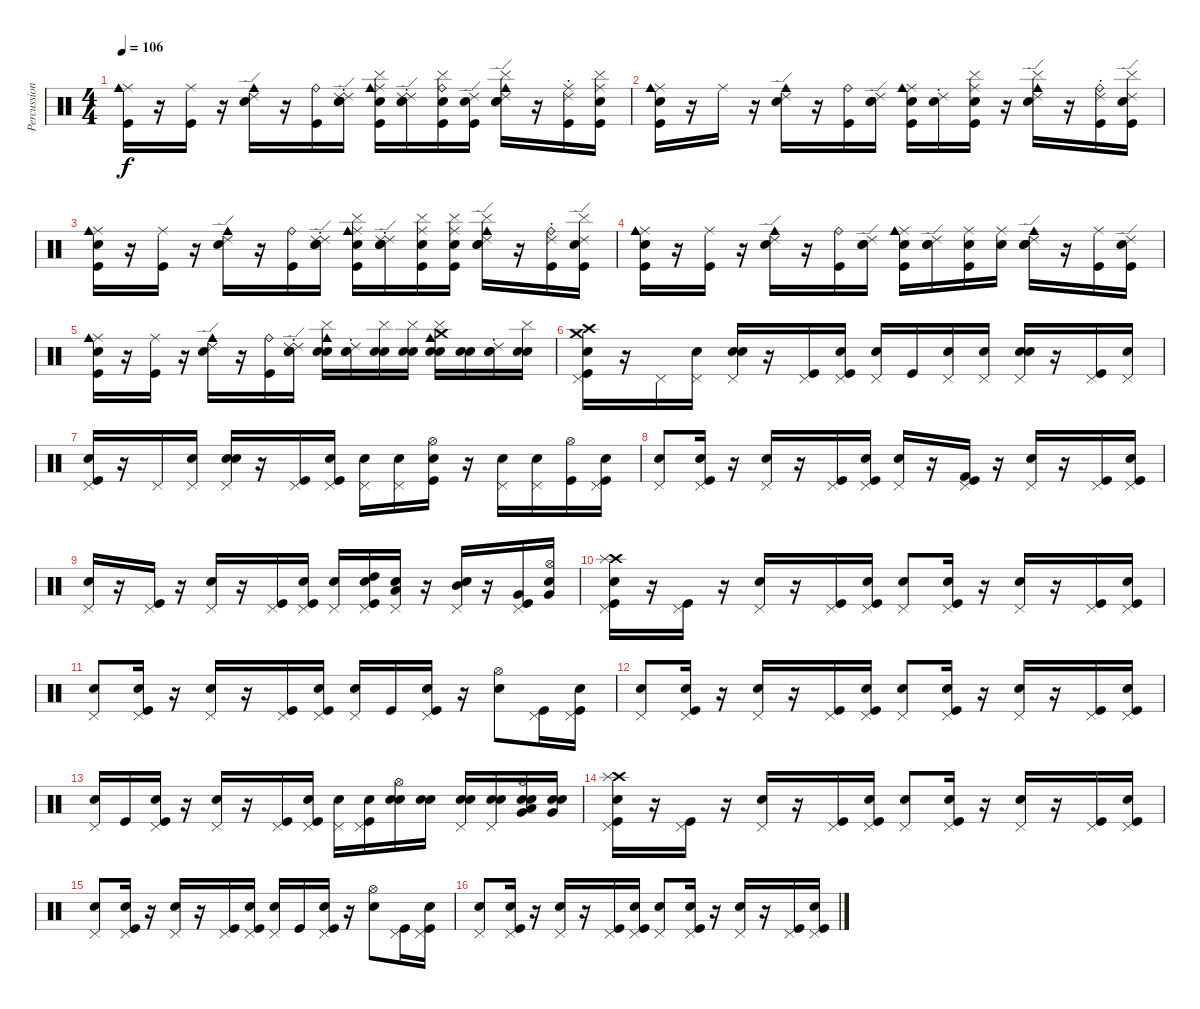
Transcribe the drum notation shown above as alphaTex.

\track ("Percussions (Zaac)" "Percussion") {instrument percussion}
\staff {score}
\articulation defaults
\ts (4 4)
\tempo 106
\clef neutral
\ks c
("Kick (hit)" "Ride (middle)" "Cowbell medium (hit)").16{dy f} r.16 ("Kick (hit)" "Ride (middle)").16 r.16 ("Electric Snare (hit)" "Cowbell medium (hit)" "Ride (edge) 2").16 r.16 ("Kick (hit)" "Ride (bell)").16 ("Snare (hit)" "Ride (choke) 2" "Electric Snare (hit)" "Ride (edge) 2").16 ("Snare (hit)" "Cymbal (hit)" "Kick (hit)" "Ride (middle)" "Cowbell medium (hit)").16 ("Snare (hit)" "Ride (choke) 2" "Electric Snare (hit)" "Ride (edge) 2").16 ("Snare (hit)" "Cymbal (hit)" "Kick (hit)" "Ride (bell)").16 ("Snare (hit)" "Kick (hit)" "Ride (edge) 2").16 ("Snare (hit)" "Cymbal (hit)" "Electric Snare (hit)" "Cowbell medium (hit)" "Ride (edge) 2").16 r.16 ("Ride (choke) 2" "Kick (hit)" "Ride (middle)").16 ("Snare (hit)" "Cymbal (hit)" "Kick (hit)" "Ride (middle)").16 |
("Snare (hit)" "Kick (hit)" "Ride (middle)" "Cowbell medium (hit)").16 r.16 "Ride (middle)".16 r.16 ("Electric Snare (hit)" "Cowbell medium (hit)" "Ride (edge) 2").16 r.16 ("Kick (hit)" "Ride (bell)").16 ("Snare (hit)" "Electric Snare (hit)" "Ride (edge) 2").16 ("Snare (hit)" "Kick (hit)" "Ride (middle)" "Cowbell medium (hit)").16 ("Snare (hit)" "Ride (choke) 2").16 ("Snare (hit)" "Cymbal (hit)" "Kick (hit)" "Ride (middle)").16 r.16 ("Cymbal (hit)" "Electric Snare (hit)" "Cowbell medium (hit)" "Ride (edge) 2").16 r.16 ("Ride (choke) 2" "Kick (hit)" "Ride (bell)").16 ("Snare (hit)" "Cymbal (hit)" "Kick (hit)" "Ride (edge) 2").16 |
("Snare (hit)" "Kick (hit)" "Ride (middle)" "Cowbell medium (hit)").16 r.16 ("Kick (hit)" "Ride (middle)").16 r.16 ("Electric Snare (hit)" "Cowbell medium (hit)" "Ride (edge) 2").16 r.16 ("Kick (hit)" "Ride (bell)").16 ("Snare (hit)" "Ride (choke) 2" "Electric Snare (hit)" "Ride (edge) 2").16 ("Snare (hit)" "Cymbal (hit)" "Kick (hit)" "Ride (middle)" "Cowbell medium (hit)").16 ("Snare (hit)" "Ride (choke) 2" "Electric Snare (hit)" "Ride (edge) 2").16 ("Snare (hit)" "Cymbal (hit)" "Kick (hit)" "Ride (middle)").16 ("Snare (hit)" "Cymbal (hit)" "Kick (hit)" "Ride (middle)").16 ("Snare (hit)" "Cymbal (hit)" "Electric Snare (hit)" "Cowbell medium (hit)" "Ride (edge) 2").16 r.16 ("Ride (choke) 2" "Kick (hit)" "Ride (bell)").16 ("Snare (hit)" "Cymbal (hit)" "Kick (hit)" "Ride (edge) 2").16 |
("Snare (hit)" "Kick (hit)" "Ride (middle)" "Cowbell medium (hit)").16 r.16 ("Kick (hit)" "Ride (middle)").16 r.16 ("Electric Snare (hit)" "Cowbell medium (hit)" "Ride (edge) 2").16 r.16 ("Kick (hit)" "Ride (bell)").16 ("Snare (hit)" "Electric Snare (hit)" "Ride (edge) 2").16 ("Snare (hit)" "Kick (hit)" "Ride (middle)" "Cowbell medium (hit)").16 ("Snare (hit)" "Electric Snare (hit)" "Ride (edge) 2").16 ("Snare (hit)" "Kick (hit)" "Ride (middle)").16 ("Snare (hit)" "Ride (middle)").16 ("Snare (hit)" "Electric Snare (hit)" "Cowbell medium (hit)" "Ride (edge) 2").16 r.16 ("Kick (hit)" "Ride (middle)").16 ("Snare (hit)" "Kick (hit)" "Ride (edge) 2").16 |
("Snare (hit)" "Kick (hit)" "Ride (middle)" "Cowbell medium (hit)").16 r.16 ("Kick (hit)" "Ride (middle)").16 r.16 ("Electric Snare (hit)" "Cowbell medium (hit)" "Ride (edge) 2").16 r.16 ("Kick (hit)" "Ride (bell)").16 ("Snare (hit)" "Ride (choke) 2" "Electric Snare (hit)" "Ride (edge) 2").16 ("Snare (hit)" "Cymbal (hit)" "Electric Snare (hit)" "Cowbell medium (hit)").16 ("Snare (hit)" "Ride (choke) 2" "Electric Snare (hit)").16 ("Snare (hit)" "Cymbal (hit)" "Electric Snare (hit)").16 ("Snare (hit)" "Cymbal (hit)" "Electric Snare (hit)").16 ("Snare (hit)" "Cymbal (hit)" "Electric Snare (hit)" "Cowbell medium (hit)" "Crash medium (hit)").16 ("Snare (hit)" "Electric Snare (hit)").16 ("Snare (hit)" "Ride (choke) 2" "Electric Snare (hit)").16 ("Snare (hit)" "Cymbal (hit)" "Electric Snare (hit)").16 |
("Snare (hit)" "Kick (hit)" "Pedal Hi-Hat (hit)" "Crash high (hit)" "Crash medium (hit)").16 r.16 "Pedal Hi-Hat (hit)".16 ("Snare (hit)" "Pedal Hi-Hat (hit)").16 ("Snare (hit)" "Electric Snare (hit)" "Pedal Hi-Hat (hit)").16 r.16 ("Kick (hit)" "Pedal Hi-Hat (hit)").16 ("Snare (hit)" "Kick (hit)" "Pedal Hi-Hat (hit)").16 ("Snare (hit)" "Pedal Hi-Hat (hit)").16 "Kick (hit)".16 ("Snare (hit)" "Pedal Hi-Hat (hit)").16 ("Snare (hit)" "Pedal Hi-Hat (hit)").16 ("Snare (hit)" "Electric Snare (hit)" "Pedal Hi-Hat (hit)").16 r.16 ("Kick (hit)" "Pedal Hi-Hat (hit)").16 ("Snare (hit)" "Pedal Hi-Hat (hit)").16 |
("Snare (hit)" "Kick (hit)" "Pedal Hi-Hat (hit)").16 r.16 "Pedal Hi-Hat (hit)".16 ("Snare (hit)" "Pedal Hi-Hat (hit)").16 ("Snare (hit)" "Electric Snare (hit)" "Pedal Hi-Hat (hit)").16 r.16 ("Kick (hit)" "Pedal Hi-Hat (hit)").16 ("Snare (hit)" "Kick (hit)" "Pedal Hi-Hat (hit)").16 ("Snare (hit)" "Pedal Hi-Hat (hit)").16 ("Snare (hit)" "Pedal Hi-Hat (hit)").16 ("Snare (hit)" "Kick (hit)" "Hi-Hat (open)").16 r.16 ("Electric Snare (hit)" "Pedal Hi-Hat (hit)").16 ("Snare (hit)" "Pedal Hi-Hat (hit)").16 ("Kick (hit)" "Hi-Hat (open)").16 ("Snare (hit)" "Kick (hit)" "Pedal Hi-Hat (hit)").16 |
("Snare (hit)" "Pedal Hi-Hat (hit)").8 ("Snare (hit)" "Kick (hit)" "Pedal Hi-Hat (hit)").16 r.16 ("Electric Snare (hit)" "Pedal Hi-Hat (hit)").16 r.16 ("Kick (hit)" "Pedal Hi-Hat (hit)").16 ("Snare (hit)" "Kick (hit)" "Pedal Hi-Hat (hit)").16 ("Snare (hit)" "Pedal Hi-Hat (hit)").16 r.16 ("Kick (hit)" "Kick (hit) 2" "Pedal Hi-Hat (hit)").16 r.16 ("Electric Snare (hit)" "Pedal Hi-Hat (hit)").16 r.16 ("Kick (hit)" "Pedal Hi-Hat (hit)").16 ("Snare (hit)" "Kick (hit)" "Pedal Hi-Hat (hit)").16 |
("Snare (hit)" "Pedal Hi-Hat (hit)").16 r.16 ("Kick (hit)" "Pedal Hi-Hat (hit)").16 r.16 ("Electric Snare (hit)" "Pedal Hi-Hat (hit)").16 r.16 ("Kick (hit)" "Pedal Hi-Hat (hit)").16 ("Snare (hit)" "Kick (hit)" "Pedal Hi-Hat (hit)").16 ("Snare (hit)" "Pedal Hi-Hat (hit)").16 ("Snare (hit)" "Kick (hit)" "Pedal Hi-Hat (hit)" "High Tom (hit)").16 ("Snare (hit)" "Pedal Hi-Hat (hit)" "Low Tom (hit)").16 r.16 ("Electric Snare (hit)" "Pedal Hi-Hat (hit)" "Mid Tom (hit)").16 r.16 ("Kick (hit)" "Very Low Tom (hit)" "Pedal Hi-Hat (hit)").16 ("Snare (hit)" "Very Low Tom (hit)" "Hi-Hat (open)").16 |
("Snare (hit)" "Kick (hit)" "Pedal Hi-Hat (hit)" "Crash high (hit)" "Splash (hit)").16 r.16 ("Kick (hit)" "Pedal Hi-Hat (hit)").16 r.16 ("Electric Snare (hit)" "Pedal Hi-Hat (hit)").16 r.16 ("Kick (hit)" "Pedal Hi-Hat (hit)").16 ("Snare (hit)" "Kick (hit)" "Pedal Hi-Hat (hit)").16 ("Snare (hit)" "Pedal Hi-Hat (hit)").8 ("Snare (hit)" "Kick (hit)" "Pedal Hi-Hat (hit)").16 r.16 ("Electric Snare (hit)" "Pedal Hi-Hat (hit)").16 r.16 ("Kick (hit)" "Pedal Hi-Hat (hit)").16 ("Snare (hit)" "Kick (hit)" "Pedal Hi-Hat (hit)").16 |
("Snare (hit)" "Pedal Hi-Hat (hit)").8 ("Snare (hit)" "Kick (hit)" "Pedal Hi-Hat (hit)").16 r.16 ("Electric Snare (hit)" "Pedal Hi-Hat (hit)").16 r.16 ("Kick (hit)" "Pedal Hi-Hat (hit)").16 ("Snare (hit)" "Kick (hit)" "Pedal Hi-Hat (hit)").16 ("Snare (hit)" "Pedal Hi-Hat (hit)").16 "Kick (hit)".16 ("Snare (hit)" "Kick (hit)" "Pedal Hi-Hat (hit)").16 r.16 ("Electric Snare (hit)" "Hi-Hat (open)").8 ("Kick (hit)" "Pedal Hi-Hat (hit)").16 ("Snare (hit)" "Kick (hit)" "Pedal Hi-Hat (hit)").16 |
("Snare (hit)" "Pedal Hi-Hat (hit)").8 ("Snare (hit)" "Kick (hit)" "Pedal Hi-Hat (hit)").16 r.16 ("Electric Snare (hit)" "Pedal Hi-Hat (hit)").16 r.16 ("Kick (hit)" "Pedal Hi-Hat (hit)").16 ("Snare (hit)" "Kick (hit)" "Pedal Hi-Hat (hit)").16 ("Snare (hit)" "Pedal Hi-Hat (hit)").8 ("Snare (hit)" "Kick (hit)" "Pedal Hi-Hat (hit)").16 r.16 ("Electric Snare (hit)" "Pedal Hi-Hat (hit)").16 r.16 ("Kick (hit)" "Pedal Hi-Hat (hit)").16 ("Snare (hit)" "Kick (hit)" "Pedal Hi-Hat (hit)").16 |
("Snare (hit)" "Pedal Hi-Hat (hit)").16 "Kick (hit)".16 ("Snare (hit)" "Kick (hit)" "Pedal Hi-Hat (hit)").16 r.16 ("Electric Snare (hit)" "Pedal Hi-Hat (hit)").16 r.16 ("Kick (hit)" "Pedal Hi-Hat (hit)").16 ("Snare (hit)" "Kick (hit)" "Pedal Hi-Hat (hit)").16 ("Snare (hit)" "Pedal Hi-Hat (hit)").16 ("Snare (hit)" "Kick (hit)" "Pedal Hi-Hat (hit)").16 ("Snare (hit)" "Electric Snare (hit)" "Hi-Hat (open)").16 ("Snare (hit)" "Electric Snare (hit)").16 ("Snare (hit)" "Electric Snare (hit)" "Pedal Hi-Hat (hit)").16 ("Snare (hit)" "Electric Snare (hit)" "Pedal Hi-Hat (hit)").16 ("Snare (hit)" "Electric Snare (hit)" "Very Low Tom (hit)" "Low Tom (hit)" "Hi-Hat (open)").16 ("Snare (hit)" "Electric Snare (hit)" "Very Low Tom (hit)").16 |
("Snare (hit)" "Kick (hit)" "Pedal Hi-Hat (hit)" "Crash high (hit)" "Splash (hit)").16 r.16 ("Kick (hit)" "Pedal Hi-Hat (hit)").16 r.16 ("Electric Snare (hit)" "Pedal Hi-Hat (hit)").16 r.16 ("Kick (hit)" "Pedal Hi-Hat (hit)").16 ("Snare (hit)" "Kick (hit)" "Pedal Hi-Hat (hit)").16 ("Snare (hit)" "Pedal Hi-Hat (hit)").8 ("Snare (hit)" "Kick (hit)" "Pedal Hi-Hat (hit)").16 r.16 ("Electric Snare (hit)" "Pedal Hi-Hat (hit)").16 r.16 ("Kick (hit)" "Pedal Hi-Hat (hit)").16 ("Snare (hit)" "Kick (hit)" "Pedal Hi-Hat (hit)").16 |
("Snare (hit)" "Pedal Hi-Hat (hit)").8 ("Snare (hit)" "Kick (hit)" "Pedal Hi-Hat (hit)").16 r.16 ("Electric Snare (hit)" "Pedal Hi-Hat (hit)").16 r.16 ("Kick (hit)" "Pedal Hi-Hat (hit)").16 ("Snare (hit)" "Kick (hit)" "Pedal Hi-Hat (hit)").16 ("Snare (hit)" "Pedal Hi-Hat (hit)").16 "Kick (hit)".16 ("Snare (hit)" "Kick (hit)" "Pedal Hi-Hat (hit)").16 r.16 ("Electric Snare (hit)" "Hi-Hat (open)").8 ("Kick (hit)" "Pedal Hi-Hat (hit)").16 ("Snare (hit)" "Kick (hit)" "Pedal Hi-Hat (hit)").16 |
("Snare (hit)" "Pedal Hi-Hat (hit)").8 ("Snare (hit)" "Kick (hit)" "Pedal Hi-Hat (hit)").16 r.16 ("Electric Snare (hit)" "Pedal Hi-Hat (hit)").16 r.16 ("Kick (hit)" "Pedal Hi-Hat (hit)").16 ("Snare (hit)" "Kick (hit)" "Pedal Hi-Hat (hit)").16 ("Snare (hit)" "Pedal Hi-Hat (hit)").8 ("Snare (hit)" "Kick (hit)" "Pedal Hi-Hat (hit)").16 r.16 ("Electric Snare (hit)" "Pedal Hi-Hat (hit)").16 r.16 ("Kick (hit)" "Pedal Hi-Hat (hit)").16 ("Snare (hit)" "Kick (hit)" "Pedal Hi-Hat (hit)").16
